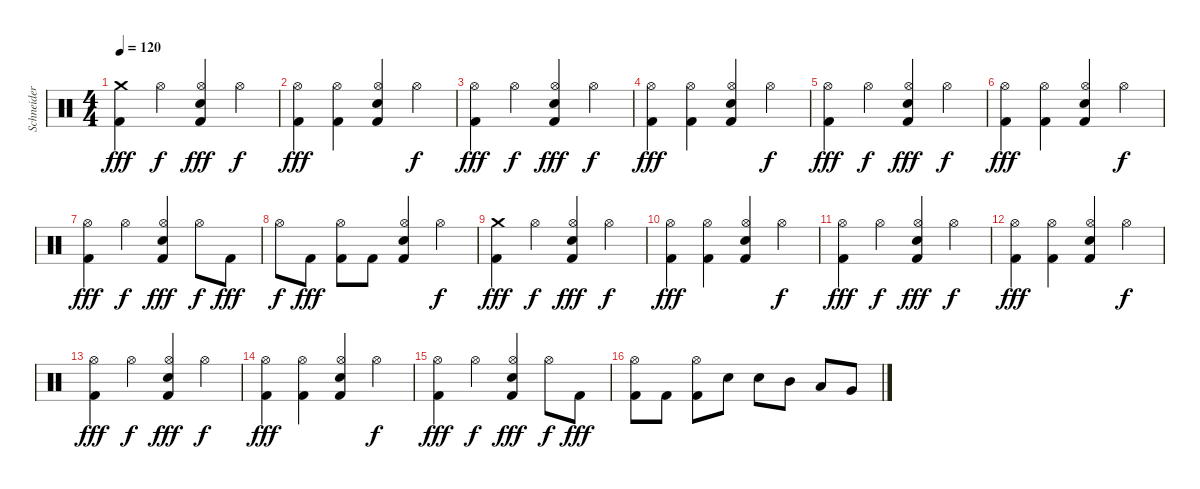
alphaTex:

\track ("Schneider" "Schneider") {instrument percussion}
\staff {score}
\articulation defaults
\ts (4 4)
\tempo 120
\clef neutral
\ks c
("Crash medium (hit)" "Kick (hit) 2").4{dy fff} "Hi-Hat (open)".4{dy f} ("Hi-Hat (open)" "Kick (hit) 2" "Snare (hit) 2").4{dy fff} "Hi-Hat (open)".4{dy f} |
("Hi-Hat (open)" "Kick (hit) 2").4{dy fff} ("Hi-Hat (open)" "Kick (hit) 2").4 ("Hi-Hat (open)" "Kick (hit) 2" "Snare (hit) 2").4 "Hi-Hat (open)".4{dy f} |
("Hi-Hat (open)" "Kick (hit) 2").4{dy fff} "Hi-Hat (open)".4{dy f} ("Hi-Hat (open)" "Kick (hit) 2" "Snare (hit) 2").4{dy fff} "Hi-Hat (open)".4{dy f} |
("Hi-Hat (open)" "Kick (hit) 2").4{dy fff} ("Hi-Hat (open)" "Kick (hit) 2").4 ("Hi-Hat (open)" "Kick (hit) 2" "Snare (hit) 2").4 "Hi-Hat (open)".4{dy f} |
("Hi-Hat (open)" "Kick (hit) 2").4{dy fff} "Hi-Hat (open)".4{dy f} ("Hi-Hat (open)" "Kick (hit) 2" "Snare (hit) 2").4{dy fff} "Hi-Hat (open)".4{dy f} |
("Hi-Hat (open)" "Kick (hit) 2").4{dy fff} ("Hi-Hat (open)" "Kick (hit) 2").4 ("Hi-Hat (open)" "Kick (hit) 2" "Snare (hit) 2").4 "Hi-Hat (open)".4{dy f} |
("Hi-Hat (open)" "Kick (hit) 2").4{dy fff} "Hi-Hat (open)".4{dy f} ("Hi-Hat (open)" "Kick (hit) 2" "Snare (hit) 2").4{dy fff} "Hi-Hat (open)".8{dy f} "Kick (hit) 2".8{dy fff} |
"Hi-Hat (open)".8{dy f} "Kick (hit) 2".8{dy fff} ("Hi-Hat (open)" "Kick (hit) 2").8 "Kick (hit) 2".8 ("Hi-Hat (open)" "Kick (hit) 2" "Snare (hit) 2").4 "Hi-Hat (open)".4{dy f} |
("Crash medium (hit)" "Kick (hit) 2").4{dy fff} "Hi-Hat (open)".4{dy f} ("Hi-Hat (open)" "Kick (hit) 2" "Snare (hit) 2").4{dy fff} "Hi-Hat (open)".4{dy f} |
("Hi-Hat (open)" "Kick (hit) 2").4{dy fff} ("Hi-Hat (open)" "Kick (hit) 2").4 ("Hi-Hat (open)" "Kick (hit) 2" "Snare (hit) 2").4 "Hi-Hat (open)".4{dy f} |
("Hi-Hat (open)" "Kick (hit) 2").4{dy fff} "Hi-Hat (open)".4{dy f} ("Hi-Hat (open)" "Kick (hit) 2" "Snare (hit) 2").4{dy fff} "Hi-Hat (open)".4{dy f} |
("Hi-Hat (open)" "Kick (hit) 2").4{dy fff} ("Hi-Hat (open)" "Kick (hit) 2").4 ("Hi-Hat (open)" "Kick (hit) 2" "Snare (hit) 2").4 "Hi-Hat (open)".4{dy f} |
("Hi-Hat (open)" "Kick (hit) 2").4{dy fff} "Hi-Hat (open)".4{dy f} ("Hi-Hat (open)" "Kick (hit) 2" "Snare (hit) 2").4{dy fff} "Hi-Hat (open)".4{dy f} |
("Hi-Hat (open)" "Kick (hit) 2").4{dy fff} ("Hi-Hat (open)" "Kick (hit) 2").4 ("Hi-Hat (open)" "Kick (hit) 2" "Snare (hit) 2").4 "Hi-Hat (open)".4{dy f} |
("Hi-Hat (open)" "Kick (hit) 2").4{dy fff} "Hi-Hat (open)".4{dy f} ("Hi-Hat (open)" "Kick (hit) 2" "Snare (hit) 2").4{dy fff} "Hi-Hat (open)".8{dy f} "Kick (hit) 2".8{dy fff} |
("Hi-Hat (open)" "Kick (hit) 2").8 "Kick (hit) 2".8 ("Hi-Hat (open)" "Kick (hit) 2").8 "Snare (hit) 2".8 "Snare (hit) 2".8 "Mid Tom (hit)".8 "Low Tom (hit)".8 "Very Low Tom (hit)".8
